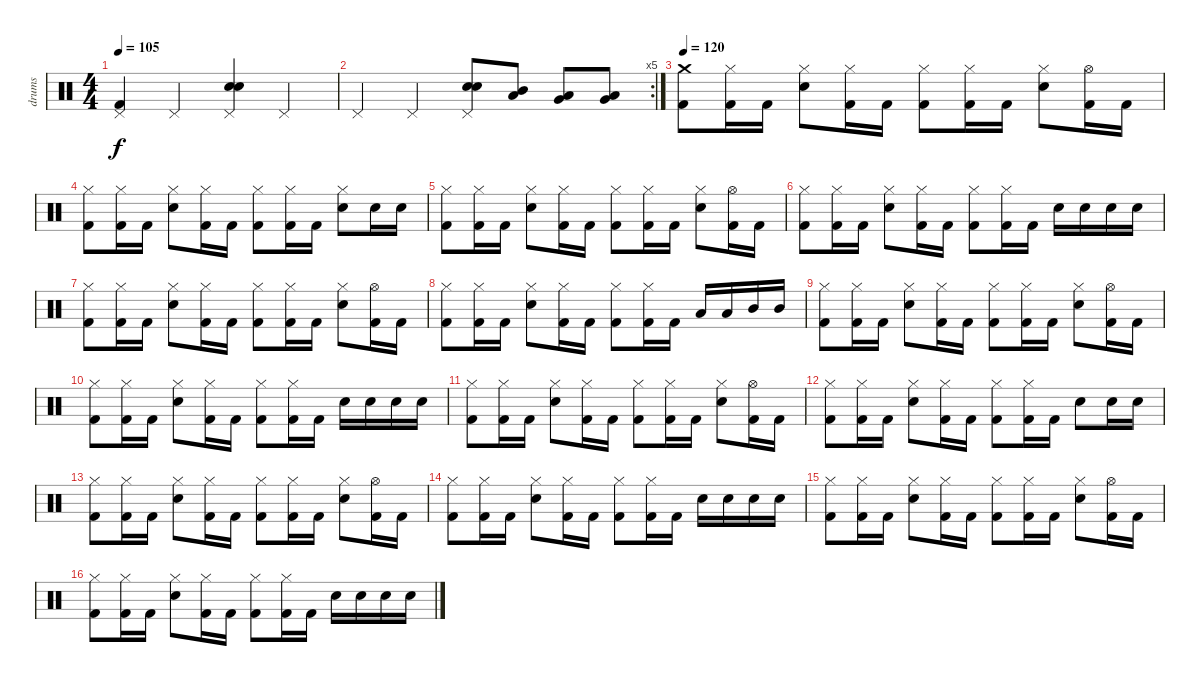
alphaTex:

\track ("drums" "drums") {instrument percussion}
\staff {score}
\articulation defaults
\ts (4 4)
\tempo 105
\clef neutral
\ks c
("Pedal Hi-Hat (hit)" "Kick (hit) 2").4{dy f} "Pedal Hi-Hat (hit)".4 ("Pedal Hi-Hat (hit)" "Electric Snare (hit)" "Snare (hit) 2").4 "Pedal Hi-Hat (hit)".4 |
\rc 5 "Pedal Hi-Hat (hit)".4 "Pedal Hi-Hat (hit)".4
("Pedal Hi-Hat (hit)" "Electric Snare (hit)" "Snare (hit) 2").8 ("Mid Tom (hit)" "Low Tom (hit)").8 ("Very Low Tom (hit)" "Low Tom (hit)").8 ("Low Floor Tom (hit)" "Very Low Tom (hit)").8 |
\tempo 120
("Crash medium (hit)" "Kick (hit) 2").8 ("Hi-Hat (closed)" "Kick (hit) 2").16 "Kick (hit) 2".16 ("Hi-Hat (closed)" "Snare (hit) 2").8 ("Hi-Hat (closed)" "Kick (hit) 2").16 "Kick (hit) 2".16 ("Hi-Hat (closed)" "Kick (hit) 2").8 ("Hi-Hat (closed)" "Kick (hit) 2").16 "Kick (hit) 2".16 ("Hi-Hat (closed)" "Snare (hit) 2").8 ("Hi-Hat (open)" "Kick (hit) 2").16 "Kick (hit) 2".16 |
("Hi-Hat (closed)" "Kick (hit) 2").8 ("Hi-Hat (closed)" "Kick (hit) 2").16 "Kick (hit) 2".16 ("Hi-Hat (closed)" "Snare (hit) 2").8 ("Hi-Hat (closed)" "Kick (hit) 2").16 "Kick (hit) 2".16 ("Hi-Hat (closed)" "Kick (hit) 2").8 ("Hi-Hat (closed)" "Kick (hit) 2").16 "Kick (hit) 2".16 ("Hi-Hat (closed)" "Snare (hit) 2").8 "Snare (hit) 2".16 "Snare (hit) 2".16 |
("Hi-Hat (closed)" "Kick (hit) 2").8 ("Hi-Hat (closed)" "Kick (hit) 2").16 "Kick (hit) 2".16 ("Hi-Hat (closed)" "Snare (hit) 2").8 ("Hi-Hat (closed)" "Kick (hit) 2").16 "Kick (hit) 2".16 ("Hi-Hat (closed)" "Kick (hit) 2").8 ("Hi-Hat (closed)" "Kick (hit) 2").16 "Kick (hit) 2".16 ("Hi-Hat (closed)" "Snare (hit) 2").8 ("Hi-Hat (open)" "Kick (hit) 2").16 "Kick (hit) 2".16 |
("Hi-Hat (closed)" "Kick (hit) 2").8 ("Hi-Hat (closed)" "Kick (hit) 2").16 "Kick (hit) 2".16 ("Hi-Hat (closed)" "Snare (hit) 2").8 ("Hi-Hat (closed)" "Kick (hit) 2").16 "Kick (hit) 2".16 ("Hi-Hat (closed)" "Kick (hit) 2").8 ("Hi-Hat (closed)" "Kick (hit) 2").16 "Kick (hit) 2".16 "Snare (hit) 2".16 "Snare (hit) 2".16 "Snare (hit) 2".16 "Snare (hit) 2".16 |
("Hi-Hat (closed)" "Kick (hit) 2").8 ("Hi-Hat (closed)" "Kick (hit) 2").16 "Kick (hit) 2".16 ("Hi-Hat (closed)" "Snare (hit) 2").8 ("Hi-Hat (closed)" "Kick (hit) 2").16 "Kick (hit) 2".16 ("Hi-Hat (closed)" "Kick (hit) 2").8 ("Hi-Hat (closed)" "Kick (hit) 2").16 "Kick (hit) 2".16 ("Hi-Hat (closed)" "Snare (hit) 2").8 ("Hi-Hat (open)" "Kick (hit) 2").16 "Kick (hit) 2".16 |
("Hi-Hat (closed)" "Kick (hit) 2").8 ("Hi-Hat (closed)" "Kick (hit) 2").16 "Kick (hit) 2".16 ("Hi-Hat (closed)" "Snare (hit) 2").8 ("Hi-Hat (closed)" "Kick (hit) 2").16 "Kick (hit) 2".16 ("Hi-Hat (closed)" "Kick (hit) 2").8 ("Hi-Hat (closed)" "Kick (hit) 2").16 "Kick (hit) 2".16 "Low Tom (hit)".16 "Low Tom (hit)".16 "Mid Tom (hit)".16 "Mid Tom (hit)".16 |
("Hi-Hat (closed)" "Kick (hit) 2").8 ("Hi-Hat (closed)" "Kick (hit) 2").16 "Kick (hit) 2".16 ("Hi-Hat (closed)" "Snare (hit) 2").8 ("Hi-Hat (closed)" "Kick (hit) 2").16 "Kick (hit) 2".16 ("Hi-Hat (closed)" "Kick (hit) 2").8 ("Hi-Hat (closed)" "Kick (hit) 2").16 "Kick (hit) 2".16 ("Hi-Hat (closed)" "Snare (hit) 2").8 ("Hi-Hat (open)" "Kick (hit) 2").16 "Kick (hit) 2".16 |
("Hi-Hat (closed)" "Kick (hit) 2").8 ("Hi-Hat (closed)" "Kick (hit) 2").16 "Kick (hit) 2".16 ("Hi-Hat (closed)" "Snare (hit) 2").8 ("Hi-Hat (closed)" "Kick (hit) 2").16 "Kick (hit) 2".16 ("Hi-Hat (closed)" "Kick (hit) 2").8 ("Hi-Hat (closed)" "Kick (hit) 2").16 "Kick (hit) 2".16 "Snare (hit) 2".16 "Snare (hit) 2".16 "Snare (hit) 2".16 "Snare (hit) 2".16 |
("Hi-Hat (closed)" "Kick (hit) 2").8 ("Hi-Hat (closed)" "Kick (hit) 2").16 "Kick (hit) 2".16 ("Hi-Hat (closed)" "Snare (hit) 2").8 ("Hi-Hat (closed)" "Kick (hit) 2").16 "Kick (hit) 2".16 ("Hi-Hat (closed)" "Kick (hit) 2").8 ("Hi-Hat (closed)" "Kick (hit) 2").16 "Kick (hit) 2".16 ("Hi-Hat (closed)" "Snare (hit) 2").8 ("Hi-Hat (open)" "Kick (hit) 2").16 "Kick (hit) 2".16 |
("Hi-Hat (closed)" "Kick (hit) 2").8 ("Hi-Hat (closed)" "Kick (hit) 2").16 "Kick (hit) 2".16 ("Hi-Hat (closed)" "Snare (hit) 2").8 ("Hi-Hat (closed)" "Kick (hit) 2").16 "Kick (hit) 2".16 ("Hi-Hat (closed)" "Kick (hit) 2").8 ("Hi-Hat (closed)" "Kick (hit) 2").16 "Kick (hit) 2".16 "Snare (hit) 2".8 "Snare (hit) 2".16 "Snare (hit) 2".16 |
("Hi-Hat (closed)" "Kick (hit) 2").8 ("Hi-Hat (closed)" "Kick (hit) 2").16 "Kick (hit) 2".16 ("Hi-Hat (closed)" "Snare (hit) 2").8 ("Hi-Hat (closed)" "Kick (hit) 2").16 "Kick (hit) 2".16 ("Hi-Hat (closed)" "Kick (hit) 2").8 ("Hi-Hat (closed)" "Kick (hit) 2").16 "Kick (hit) 2".16 ("Hi-Hat (closed)" "Snare (hit) 2").8 ("Hi-Hat (open)" "Kick (hit) 2").16 "Kick (hit) 2".16 |
("Hi-Hat (closed)" "Kick (hit) 2").8 ("Hi-Hat (closed)" "Kick (hit) 2").16 "Kick (hit) 2".16 ("Hi-Hat (closed)" "Snare (hit) 2").8 ("Hi-Hat (closed)" "Kick (hit) 2").16 "Kick (hit) 2".16 ("Hi-Hat (closed)" "Kick (hit) 2").8 ("Hi-Hat (closed)" "Kick (hit) 2").16 "Kick (hit) 2".16 "Snare (hit) 2".16 "Snare (hit) 2".16 "Snare (hit) 2".16 "Snare (hit) 2".16 |
("Hi-Hat (closed)" "Kick (hit) 2").8 ("Hi-Hat (closed)" "Kick (hit) 2").16 "Kick (hit) 2".16 ("Hi-Hat (closed)" "Snare (hit) 2").8 ("Hi-Hat (closed)" "Kick (hit) 2").16 "Kick (hit) 2".16 ("Hi-Hat (closed)" "Kick (hit) 2").8 ("Hi-Hat (closed)" "Kick (hit) 2").16 "Kick (hit) 2".16 ("Hi-Hat (closed)" "Snare (hit) 2").8 ("Hi-Hat (open)" "Kick (hit) 2").16 "Kick (hit) 2".16 |
("Hi-Hat (closed)" "Kick (hit) 2").8 ("Hi-Hat (closed)" "Kick (hit) 2").16 "Kick (hit) 2".16 ("Hi-Hat (closed)" "Snare (hit) 2").8 ("Hi-Hat (closed)" "Kick (hit) 2").16 "Kick (hit) 2".16 ("Hi-Hat (closed)" "Kick (hit) 2").8 ("Hi-Hat (closed)" "Kick (hit) 2").16 "Kick (hit) 2".16 "Snare (hit) 2".16 "Snare (hit) 2".16 "Snare (hit) 2".16 "Snare (hit) 2".16
